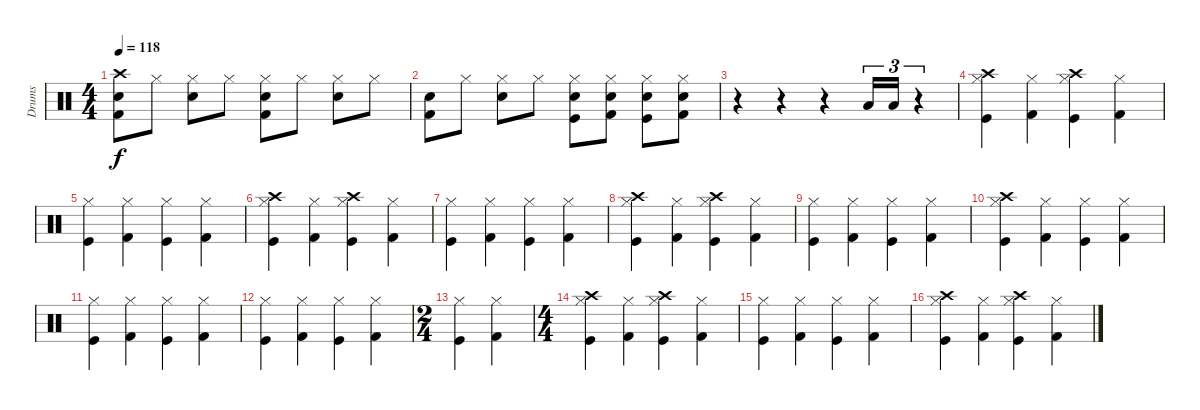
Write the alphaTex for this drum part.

\track ("Drums" "Drums") {instrument percussion}
\staff {score}
\articulation defaults
\ts (4 4)
\tempo 118
\clef neutral
\ks c
("Electric Snare (hit)" "Kick (hit) 2" "Crash high (hit)").8{dy f} "Hi-Hat (closed)".8 ("Hi-Hat (closed)" "Electric Snare (hit)").8 "Hi-Hat (closed)".8 ("Hi-Hat (closed)" "Kick (hit) 2" "Electric Snare (hit)").8 "Hi-Hat (closed)".8 ("Hi-Hat (closed)" "Electric Snare (hit)").8 "Hi-Hat (closed)".8 |
("Electric Snare (hit)" "Kick (hit) 2").8 "Hi-Hat (closed)".8 ("Hi-Hat (closed)" "Electric Snare (hit)").8 "Hi-Hat (closed)".8 ("Electric Snare (hit)" "Kick (hit)" "Hi-Hat (closed)").8 ("Electric Snare (hit)" "Hi-Hat (closed)" "Kick (hit) 2").8 ("Electric Snare (hit)" "Kick (hit)" "Hi-Hat (closed)").8 ("Electric Snare (hit)" "Hi-Hat (closed)" "Kick (hit) 2").8 |
r.4 r.4 r.4 "Low Tom (hit)".16{tu (3 2)} "Low Tom (hit)".16{tu (3 2)} r.4{tu (3 2)} |
("Crash high (hit)" "Kick (hit)" "Hi-Hat (closed)").4 ("Hi-Hat (closed)" "Kick (hit) 2").4 ("Crash high (hit)" "Kick (hit)" "Hi-Hat (closed)").4 ("Hi-Hat (closed)" "Kick (hit) 2").4 |
("Kick (hit)" "Hi-Hat (closed)").4 ("Hi-Hat (closed)" "Kick (hit) 2").4 ("Kick (hit)" "Hi-Hat (closed)").4 ("Hi-Hat (closed)" "Kick (hit) 2").4 |
("Crash high (hit)" "Kick (hit)" "Hi-Hat (closed)").4 ("Hi-Hat (closed)" "Kick (hit) 2").4 ("Crash high (hit)" "Kick (hit)" "Hi-Hat (closed)").4 ("Hi-Hat (closed)" "Kick (hit) 2").4 |
("Kick (hit)" "Hi-Hat (closed)").4 ("Hi-Hat (closed)" "Kick (hit) 2").4 ("Kick (hit)" "Hi-Hat (closed)").4 ("Hi-Hat (closed)" "Kick (hit) 2").4 |
("Crash high (hit)" "Kick (hit)" "Hi-Hat (closed)").4 ("Hi-Hat (closed)" "Kick (hit) 2").4 ("Crash high (hit)" "Kick (hit)" "Hi-Hat (closed)").4 ("Hi-Hat (closed)" "Kick (hit) 2").4 |
("Kick (hit)" "Hi-Hat (closed)").4 ("Hi-Hat (closed)" "Kick (hit) 2").4 ("Kick (hit)" "Hi-Hat (closed)").4 ("Hi-Hat (closed)" "Kick (hit) 2").4 |
("Crash high (hit)" "Kick (hit)" "Hi-Hat (closed)").4 ("Hi-Hat (closed)" "Kick (hit) 2").4 ("Kick (hit)" "Hi-Hat (closed)").4 ("Hi-Hat (closed)" "Kick (hit) 2").4 |
("Kick (hit)" "Hi-Hat (closed)").4 ("Hi-Hat (closed)" "Kick (hit) 2").4 ("Kick (hit)" "Hi-Hat (closed)").4 ("Hi-Hat (closed)" "Kick (hit) 2").4 |
("Kick (hit)" "Hi-Hat (closed)").4 ("Hi-Hat (closed)" "Kick (hit) 2").4 ("Kick (hit)" "Hi-Hat (closed)").4 ("Hi-Hat (closed)" "Kick (hit) 2").4 |
\ts (2 4)
("Kick (hit)" "Hi-Hat (closed)").4 ("Hi-Hat (closed)" "Kick (hit) 2").4 |
\ts (4 4)
("Crash high (hit)" "Kick (hit)" "Hi-Hat (closed)").4 ("Hi-Hat (closed)" "Kick (hit) 2").4 ("Crash high (hit)" "Kick (hit)" "Hi-Hat (closed)").4 ("Hi-Hat (closed)" "Kick (hit) 2").4 |
("Kick (hit)" "Hi-Hat (closed)").4 ("Hi-Hat (closed)" "Kick (hit) 2").4 ("Kick (hit)" "Hi-Hat (closed)").4 ("Hi-Hat (closed)" "Kick (hit) 2").4 |
("Crash high (hit)" "Kick (hit)" "Hi-Hat (closed)").4 ("Hi-Hat (closed)" "Kick (hit) 2").4 ("Crash high (hit)" "Kick (hit)" "Hi-Hat (closed)").4 ("Hi-Hat (closed)" "Kick (hit) 2").4
